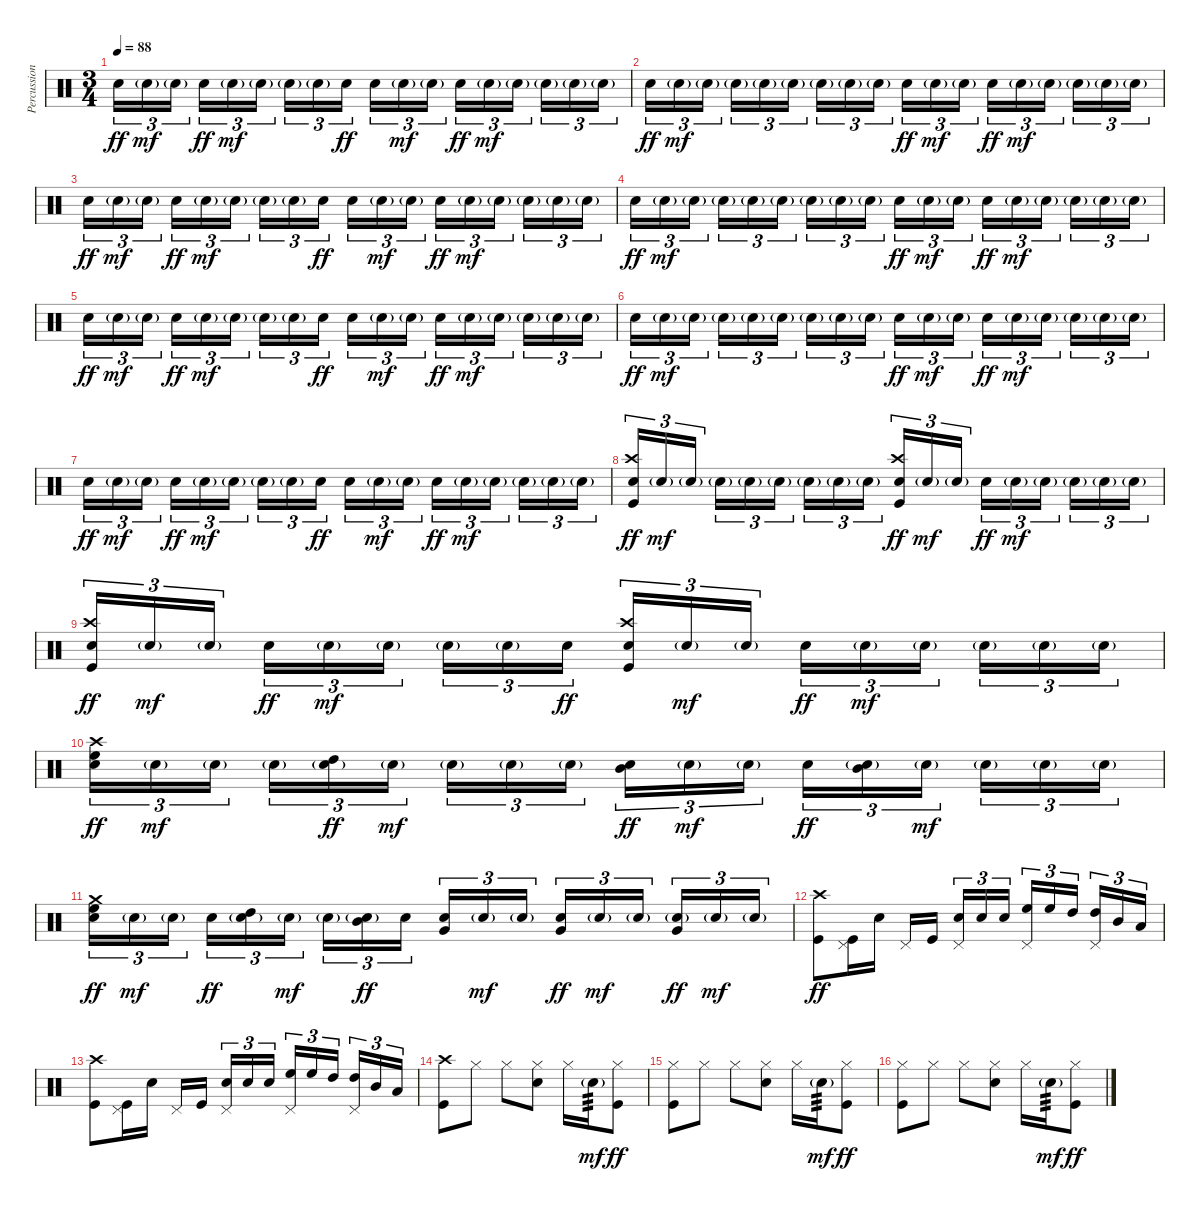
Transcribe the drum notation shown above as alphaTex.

\track ("Percussion" "Percussion") {instrument percussion}
\staff {score}
\articulation defaults
\ts (3 4)
\tempo 88
\clef neutral
\ks c "Snare (hit) 2".16{tu (3 2) dy ff} "Snare (hit) 2"{g}.16{tu (3 2) dy mf} "Snare (hit) 2"{g}.16{tu (3 2) beam splitsecondary} "Snare (hit) 2".16{tu (3 2) dy ff} "Snare (hit) 2"{g}.16{tu (3 2) dy mf} "Snare (hit) 2"{g}.16{tu (3 2)} "Snare (hit) 2"{g}.16{tu (3 2)} "Snare (hit) 2"{g}.16{tu (3 2)} "Snare (hit) 2".16{tu (3 2) dy ff beam splitsecondary} "Snare (hit) 2".16{tu (3 2)} "Snare (hit) 2"{g}.16{tu (3 2) dy mf} "Snare (hit) 2"{g}.16{tu (3 2)} "Snare (hit) 2".16{tu (3 2) dy ff} "Snare (hit) 2"{g}.16{tu (3 2) dy mf} "Snare (hit) 2"{g}.16{tu (3 2) beam splitsecondary} "Snare (hit) 2"{g}.16{tu (3 2)} "Snare (hit) 2"{g}.16{tu (3 2)} "Snare (hit) 2"{g}.16{tu (3 2)}
|
"Snare (hit) 2".16{tu (3 2) dy ff} "Snare (hit) 2"{g}.16{tu (3 2) dy mf} "Snare (hit) 2"{g}.16{tu (3 2) beam splitsecondary} "Snare (hit) 2"{g}.16{tu (3 2)} "Snare (hit) 2"{g}.16{tu (3 2)} "Snare (hit) 2"{g}.16{tu (3 2)} "Snare (hit) 2"{g}.16{tu (3 2)} "Snare (hit) 2"{g}.16{tu (3 2)} "Snare (hit) 2"{g}.16{tu (3 2) beam splitsecondary} "Snare (hit) 2".16{tu (3 2) dy ff} "Snare (hit) 2"{g}.16{tu (3 2) dy mf} "Snare (hit) 2"{g}.16{tu (3 2)} "Snare (hit) 2".16{tu (3 2) dy ff} "Snare (hit) 2"{g}.16{tu (3 2) dy mf} "Snare (hit) 2"{g}.16{tu (3 2) beam splitsecondary} "Snare (hit) 2"{g}.16{tu (3 2)} "Snare (hit) 2"{g}.16{tu (3 2)} "Snare (hit) 2"{g}.16{tu (3 2)} |
"Snare (hit) 2".16{tu (3 2) dy ff} "Snare (hit) 2"{g}.16{tu (3 2) dy mf} "Snare (hit) 2"{g}.16{tu (3 2) beam splitsecondary} "Snare (hit) 2".16{tu (3 2) dy ff} "Snare (hit) 2"{g}.16{tu (3 2) dy mf} "Snare (hit) 2"{g}.16{tu (3 2)} "Snare (hit) 2"{g}.16{tu (3 2)} "Snare (hit) 2"{g}.16{tu (3 2)} "Snare (hit) 2".16{tu (3 2) dy ff beam splitsecondary} "Snare (hit) 2".16{tu (3 2)} "Snare (hit) 2"{g}.16{tu (3 2) dy mf} "Snare (hit) 2"{g}.16{tu (3 2)} "Snare (hit) 2".16{tu (3 2) dy ff} "Snare (hit) 2"{g}.16{tu (3 2) dy mf} "Snare (hit) 2"{g}.16{tu (3 2) beam splitsecondary} "Snare (hit) 2"{g}.16{tu (3 2)} "Snare (hit) 2"{g}.16{tu (3 2)} "Snare (hit) 2"{g}.16{tu (3 2)} |
"Snare (hit) 2".16{tu (3 2) dy ff} "Snare (hit) 2"{g}.16{tu (3 2) dy mf} "Snare (hit) 2"{g}.16{tu (3 2) beam splitsecondary} "Snare (hit) 2"{g}.16{tu (3 2)} "Snare (hit) 2"{g}.16{tu (3 2)} "Snare (hit) 2"{g}.16{tu (3 2)} "Snare (hit) 2"{g}.16{tu (3 2)} "Snare (hit) 2"{g}.16{tu (3 2)} "Snare (hit) 2"{g}.16{tu (3 2) beam splitsecondary} "Snare (hit) 2".16{tu (3 2) dy ff} "Snare (hit) 2"{g}.16{tu (3 2) dy mf} "Snare (hit) 2"{g}.16{tu (3 2)} "Snare (hit) 2".16{tu (3 2) dy ff} "Snare (hit) 2"{g}.16{tu (3 2) dy mf} "Snare (hit) 2"{g}.16{tu (3 2) beam splitsecondary} "Snare (hit) 2"{g}.16{tu (3 2)} "Snare (hit) 2"{g}.16{tu (3 2)} "Snare (hit) 2"{g}.16{tu (3 2)} |
"Snare (hit) 2".16{tu (3 2) dy ff} "Snare (hit) 2"{g}.16{tu (3 2) dy mf} "Snare (hit) 2"{g}.16{tu (3 2) beam splitsecondary} "Snare (hit) 2".16{tu (3 2) dy ff} "Snare (hit) 2"{g}.16{tu (3 2) dy mf} "Snare (hit) 2"{g}.16{tu (3 2)} "Snare (hit) 2"{g}.16{tu (3 2)} "Snare (hit) 2"{g}.16{tu (3 2)} "Snare (hit) 2".16{tu (3 2) dy ff beam splitsecondary} "Snare (hit) 2".16{tu (3 2)} "Snare (hit) 2"{g}.16{tu (3 2) dy mf} "Snare (hit) 2"{g}.16{tu (3 2)} "Snare (hit) 2".16{tu (3 2) dy ff} "Snare (hit) 2"{g}.16{tu (3 2) dy mf} "Snare (hit) 2"{g}.16{tu (3 2) beam splitsecondary} "Snare (hit) 2"{g}.16{tu (3 2)} "Snare (hit) 2"{g}.16{tu (3 2)} "Snare (hit) 2"{g}.16{tu (3 2)} |
"Snare (hit) 2".16{tu (3 2) dy ff} "Snare (hit) 2"{g}.16{tu (3 2) dy mf} "Snare (hit) 2"{g}.16{tu (3 2) beam splitsecondary} "Snare (hit) 2"{g}.16{tu (3 2)} "Snare (hit) 2"{g}.16{tu (3 2)} "Snare (hit) 2"{g}.16{tu (3 2)} "Snare (hit) 2"{g}.16{tu (3 2)} "Snare (hit) 2"{g}.16{tu (3 2)} "Snare (hit) 2"{g}.16{tu (3 2) beam splitsecondary} "Snare (hit) 2".16{tu (3 2) dy ff} "Snare (hit) 2"{g}.16{tu (3 2) dy mf} "Snare (hit) 2"{g}.16{tu (3 2)} "Snare (hit) 2".16{tu (3 2) dy ff} "Snare (hit) 2"{g}.16{tu (3 2) dy mf} "Snare (hit) 2"{g}.16{tu (3 2) beam splitsecondary} "Snare (hit) 2"{g}.16{tu (3 2)} "Snare (hit) 2"{g}.16{tu (3 2)} "Snare (hit) 2"{g}.16{tu (3 2)} |
"Snare (hit) 2".16{tu (3 2) dy ff} "Snare (hit) 2"{g}.16{tu (3 2) dy mf} "Snare (hit) 2"{g}.16{tu (3 2) beam splitsecondary} "Snare (hit) 2".16{tu (3 2) dy ff} "Snare (hit) 2"{g}.16{tu (3 2) dy mf} "Snare (hit) 2"{g}.16{tu (3 2)} "Snare (hit) 2"{g}.16{tu (3 2)} "Snare (hit) 2"{g}.16{tu (3 2)} "Snare (hit) 2".16{tu (3 2) dy ff beam splitsecondary} "Snare (hit) 2".16{tu (3 2)} "Snare (hit) 2"{g}.16{tu (3 2) dy mf} "Snare (hit) 2"{g}.16{tu (3 2)} "Snare (hit) 2".16{tu (3 2) dy ff} "Snare (hit) 2"{g}.16{tu (3 2) dy mf} "Snare (hit) 2"{g}.16{tu (3 2) beam splitsecondary} "Snare (hit) 2"{g}.16{tu (3 2)} "Snare (hit) 2"{g}.16{tu (3 2)} "Snare (hit) 2"{g}.16{tu (3 2)} |
("Snare (hit) 2" "Crash high (hit)" "Kick (hit)").16{tu (3 2) dy ff} "Snare (hit) 2"{g}.16{tu (3 2) dy mf} "Snare (hit) 2"{g}.16{tu (3 2) beam splitsecondary} "Snare (hit) 2"{g}.16{tu (3 2)} "Snare (hit) 2"{g}.16{tu (3 2)} "Snare (hit) 2"{g}.16{tu (3 2)} "Snare (hit) 2"{g}.16{tu (3 2)} "Snare (hit) 2"{g}.16{tu (3 2)} "Snare (hit) 2"{g}.16{tu (3 2) beam splitsecondary} ("Snare (hit) 2" "Crash high (hit)" "Kick (hit)").16{tu (3 2) dy ff} "Snare (hit) 2"{g}.16{tu (3 2) dy mf} "Snare (hit) 2"{g}.16{tu (3 2)} "Snare (hit) 2".16{tu (3 2) dy ff} "Snare (hit) 2"{g}.16{tu (3 2) dy mf} "Snare (hit) 2"{g}.16{tu (3 2) beam splitsecondary} "Snare (hit) 2"{g}.16{tu (3 2)} "Snare (hit) 2"{g}.16{tu (3 2)} "Snare (hit) 2"{g}.16{tu (3 2)} |
("Snare (hit) 2" "Crash high (hit)" "Kick (hit)").16{tu (3 2) dy ff} "Snare (hit) 2"{g}.16{tu (3 2) dy mf} "Snare (hit) 2"{g}.16{tu (3 2) beam splitsecondary} "Snare (hit) 2".16{tu (3 2) dy ff} "Snare (hit) 2"{g}.16{tu (3 2) dy mf} "Snare (hit) 2"{g}.16{tu (3 2)} "Snare (hit) 2"{g}.16{tu (3 2)} "Snare (hit) 2"{g}.16{tu (3 2)} "Snare (hit) 2".16{tu (3 2) dy ff beam splitsecondary} ("Snare (hit) 2" "Crash high (hit)" "Kick (hit)").16{tu (3 2)} "Snare (hit) 2"{g}.16{tu (3 2) dy mf} "Snare (hit) 2"{g}.16{tu (3 2)} "Snare (hit) 2".16{tu (3 2) dy ff} "Snare (hit) 2"{g}.16{tu (3 2) dy mf} "Snare (hit) 2"{g}.16{tu (3 2) beam splitsecondary} "Snare (hit) 2"{g}.16{tu (3 2)} "Snare (hit) 2"{g}.16{tu (3 2)} "Snare (hit) 2"{g}.16{tu (3 2)} |
("Snare (hit) 2" "High Floor Tom (hit)" "Crash high (hit)").16{tu (3 2) dy ff} "Snare (hit) 2"{g}.16{tu (3 2) dy mf} "Snare (hit) 2"{g}.16{tu (3 2) beam splitsecondary} "Snare (hit) 2"{g}.16{tu (3 2)} ("Snare (hit) 2"{g} "High Tom (hit)").16{tu (3 2) dy ff} "Snare (hit) 2"{g}.16{tu (3 2) dy mf} "Snare (hit) 2"{g}.16{tu (3 2)} "Snare (hit) 2"{g}.16{tu (3 2)} "Snare (hit) 2"{g}.16{tu (3 2) beam splitsecondary} ("Snare (hit) 2" "Mid Tom (hit)").16{tu (3 2) dy ff} "Snare (hit) 2"{g}.16{tu (3 2) dy mf} "Snare (hit) 2"{g}.16{tu (3 2)} "Snare (hit) 2".16{tu (3 2) dy ff} ("Snare (hit) 2"{g} "Mid Tom (hit)").16{tu (3 2)} "Snare (hit) 2"{g}.16{tu (3 2) dy mf beam splitsecondary} "Snare (hit) 2"{g}.16{tu (3 2)} "Snare (hit) 2"{g}.16{tu (3 2)} "Snare (hit) 2"{g}.16{tu (3 2)} |
("Snare (hit) 2" "High Floor Tom (hit)" "Crash medium (hit)").16{tu (3 2) dy ff} "Snare (hit) 2"{g}.16{tu (3 2) dy mf} "Snare (hit) 2"{g}.16{tu (3 2) beam splitsecondary} "Snare (hit) 2".16{tu (3 2) dy ff} ("Snare (hit) 2"{g} "High Tom (hit)").16{tu (3 2)} "Snare (hit) 2"{g}.16{tu (3 2) dy mf} "Snare (hit) 2"{g}.16{tu (3 2)} ("Snare (hit) 2"{g} "Mid Tom (hit)").16{tu (3 2) dy ff} "Snare (hit) 2".16{tu (3 2) beam splitsecondary} ("Snare (hit) 2" "Very Low Tom (hit)").16{tu (3 2)} "Snare (hit) 2"{g}.16{tu (3 2) dy mf} "Snare (hit) 2"{g}.16{tu (3 2)} ("Snare (hit) 2" "Very Low Tom (hit)").16{tu (3 2) dy ff} "Snare (hit) 2"{g}.16{tu (3 2) dy mf} "Snare (hit) 2"{g}.16{tu (3 2) beam splitsecondary} ("Snare (hit) 2"{g} "Very Low Tom (hit)").16{tu (3 2) dy ff} "Snare (hit) 2"{g}.16{tu (3 2) dy mf} "Snare (hit) 2"{g}.16{tu (3 2)} |
("Kick (hit)" "Crash high (hit)").8{dy ff} ("Kick (hit)" "Pedal Hi-Hat (hit)").16 "Snare (hit) 2".16 "Pedal Hi-Hat (hit)".16 "Kick (hit)".16{beam splitsecondary} ("Snare (hit) 2" "Pedal Hi-Hat (hit)").16{tu (3 2)} "Snare (hit) 2".16{tu (3 2)} "Snare (hit) 2".16{tu (3 2)} ("High Floor Tom (hit)" "Pedal Hi-Hat (hit)").16{tu (3 2)} "High Floor Tom (hit)".16{tu (3 2)} "High Tom (hit)".16{tu (3 2) beam splitsecondary} ("High Tom (hit)" "Pedal Hi-Hat (hit)").16{tu (3 2)} "Mid Tom (hit)".16{tu (3 2)} "Low Tom (hit)".16{tu (3 2)} |
("Kick (hit)" "Crash high (hit)").8 ("Kick (hit)" "Pedal Hi-Hat (hit)").16 "Snare (hit) 2".16 "Pedal Hi-Hat (hit)".16 "Kick (hit)".16{beam splitsecondary} ("Snare (hit) 2" "Pedal Hi-Hat (hit)").16{tu (3 2)} "Snare (hit) 2".16{tu (3 2)} "Snare (hit) 2".16{tu (3 2)} ("High Floor Tom (hit)" "Pedal Hi-Hat (hit)").16{tu (3 2)} "High Floor Tom (hit)".16{tu (3 2)} "High Tom (hit)".16{tu (3 2) beam splitsecondary} ("High Tom (hit)" "Pedal Hi-Hat (hit)").16{tu (3 2)} "Mid Tom (hit)".16{tu (3 2)} "Low Tom (hit)".16{tu (3 2)} |
("Kick (hit)" "Crash high (hit)").8 "Hi-Hat (closed)".8 "Hi-Hat (closed)".8 ("Snare (hit) 2" "Hi-Hat (closed)").8 "Hi-Hat (closed)".16 "Snare (hit) 2"{g}.16{tp 3 dy mf} ("Hi-Hat (closed)" "Kick (hit)").8{dy ff} |
("Kick (hit)" "Hi-Hat (closed)").8 "Hi-Hat (closed)".8 "Hi-Hat (closed)".8 ("Snare (hit) 2" "Hi-Hat (closed)").8 "Hi-Hat (closed)".16 "Snare (hit) 2"{g}.16{tp 3 dy mf} ("Hi-Hat (closed)" "Kick (hit)").8{dy ff} |
("Kick (hit)" "Hi-Hat (closed)").8 "Hi-Hat (closed)".8 "Hi-Hat (closed)".8 ("Snare (hit) 2" "Hi-Hat (closed)").8 "Hi-Hat (closed)".16 "Snare (hit) 2"{g}.16{tp 3 dy mf} ("Hi-Hat (closed)" "Kick (hit)").8{dy ff}
